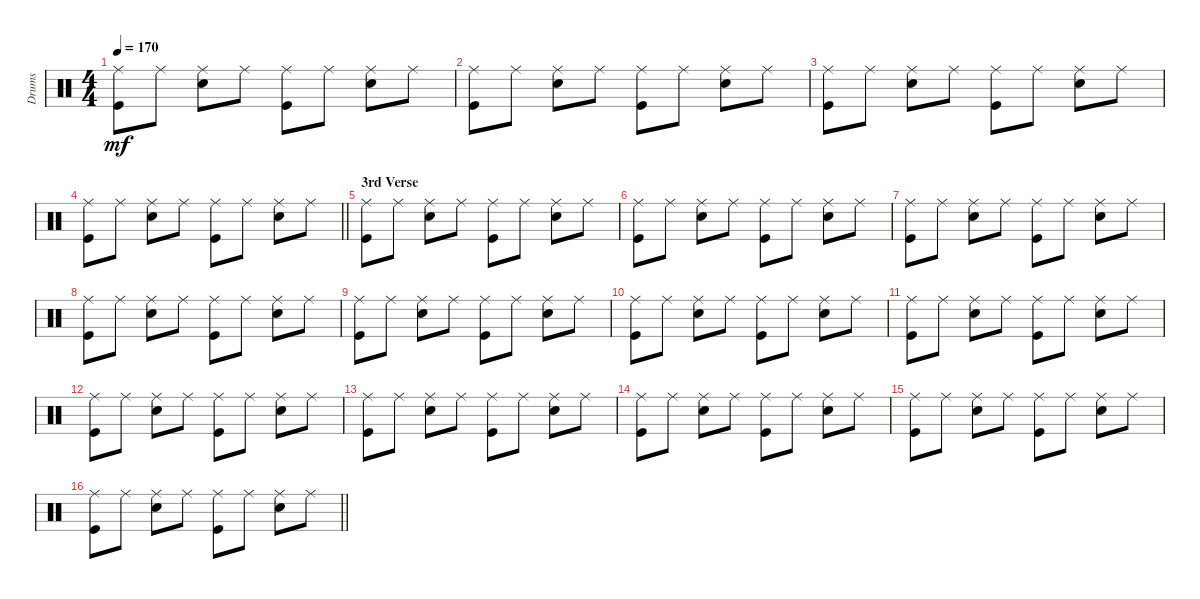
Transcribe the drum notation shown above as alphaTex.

\track ("Drums" "Drums") {instrument percussion}
\staff {score}
\articulation defaults
\ts (4 4)
\tempo 170
\clef neutral
\ks c
("Ride (middle)" "Kick (hit)").8{dy mf} "Ride (middle)".8 ("Ride (middle)" "Snare (hit) 2").8 "Ride (middle)".8 ("Ride (middle)" "Kick (hit)").8 "Ride (middle)".8 ("Ride (middle)" "Snare (hit) 2").8 "Ride (middle)".8 |
("Ride (middle)" "Kick (hit)").8 "Ride (middle)".8 ("Ride (middle)" "Snare (hit) 2").8 "Ride (middle)".8 ("Ride (middle)" "Kick (hit)").8 "Ride (middle)".8 ("Ride (middle)" "Snare (hit) 2").8 "Ride (middle)".8 |
("Ride (middle)" "Kick (hit)").8 "Ride (middle)".8 ("Ride (middle)" "Snare (hit) 2").8 "Ride (middle)".8 ("Ride (middle)" "Kick (hit)").8 "Ride (middle)".8 ("Ride (middle)" "Snare (hit) 2").8 "Ride (middle)".8 |
\barLineRight lightlight
("Ride (middle)" "Kick (hit)").8 "Ride (middle)".8 ("Ride (middle)" "Snare (hit) 2").8 "Ride (middle)".8 ("Ride (middle)" "Kick (hit)").8 "Ride (middle)".8 ("Ride (middle)" "Snare (hit) 2").8 "Ride (middle)".8 |
\section ("" "3rd Verse")
("Ride (middle)" "Kick (hit)").8 "Ride (middle)".8 ("Ride (middle)" "Snare (hit) 2").8 "Ride (middle)".8 ("Ride (middle)" "Kick (hit)").8 "Ride (middle)".8 ("Ride (middle)" "Snare (hit) 2").8 "Ride (middle)".8 |
("Ride (middle)" "Kick (hit)").8 "Ride (middle)".8 ("Ride (middle)" "Snare (hit) 2").8 "Ride (middle)".8 ("Ride (middle)" "Kick (hit)").8 "Ride (middle)".8 ("Ride (middle)" "Snare (hit) 2").8 "Ride (middle)".8 |
("Ride (middle)" "Kick (hit)").8 "Ride (middle)".8 ("Ride (middle)" "Snare (hit) 2").8 "Ride (middle)".8 ("Ride (middle)" "Kick (hit)").8 "Ride (middle)".8 ("Ride (middle)" "Snare (hit) 2").8 "Ride (middle)".8 |
("Ride (middle)" "Kick (hit)").8 "Ride (middle)".8 ("Ride (middle)" "Snare (hit) 2").8 "Ride (middle)".8 ("Ride (middle)" "Kick (hit)").8 "Ride (middle)".8 ("Ride (middle)" "Snare (hit) 2").8 "Ride (middle)".8 |
("Ride (middle)" "Kick (hit)").8 "Ride (middle)".8 ("Ride (middle)" "Snare (hit) 2").8 "Ride (middle)".8 ("Ride (middle)" "Kick (hit)").8 "Ride (middle)".8 ("Ride (middle)" "Snare (hit) 2").8 "Ride (middle)".8 |
("Ride (middle)" "Kick (hit)").8 "Ride (middle)".8 ("Ride (middle)" "Snare (hit) 2").8 "Ride (middle)".8 ("Ride (middle)" "Kick (hit)").8 "Ride (middle)".8 ("Ride (middle)" "Snare (hit) 2").8 "Ride (middle)".8 |
("Ride (middle)" "Kick (hit)").8 "Ride (middle)".8 ("Ride (middle)" "Snare (hit) 2").8 "Ride (middle)".8 ("Ride (middle)" "Kick (hit)").8 "Ride (middle)".8 ("Ride (middle)" "Snare (hit) 2").8 "Ride (middle)".8 |
("Ride (middle)" "Kick (hit)").8 "Ride (middle)".8 ("Ride (middle)" "Snare (hit) 2").8 "Ride (middle)".8 ("Ride (middle)" "Kick (hit)").8 "Ride (middle)".8 ("Ride (middle)" "Snare (hit) 2").8 "Ride (middle)".8 |
("Ride (middle)" "Kick (hit)").8 "Ride (middle)".8 ("Ride (middle)" "Snare (hit) 2").8 "Ride (middle)".8 ("Ride (middle)" "Kick (hit)").8 "Ride (middle)".8 ("Ride (middle)" "Snare (hit) 2").8 "Ride (middle)".8 |
("Ride (middle)" "Kick (hit)").8 "Ride (middle)".8 ("Ride (middle)" "Snare (hit) 2").8 "Ride (middle)".8 ("Ride (middle)" "Kick (hit)").8 "Ride (middle)".8 ("Ride (middle)" "Snare (hit) 2").8 "Ride (middle)".8 |
("Ride (middle)" "Kick (hit)").8 "Ride (middle)".8 ("Ride (middle)" "Snare (hit) 2").8 "Ride (middle)".8 ("Ride (middle)" "Kick (hit)").8 "Ride (middle)".8 ("Ride (middle)" "Snare (hit) 2").8 "Ride (middle)".8 |
\barLineRight lightlight
("Ride (middle)" "Kick (hit)").8 "Ride (middle)".8 ("Ride (middle)" "Snare (hit) 2").8 "Ride (middle)".8 ("Ride (middle)" "Kick (hit)").8 "Ride (middle)".8 ("Ride (middle)" "Snare (hit) 2").8 "Ride (middle)".8
